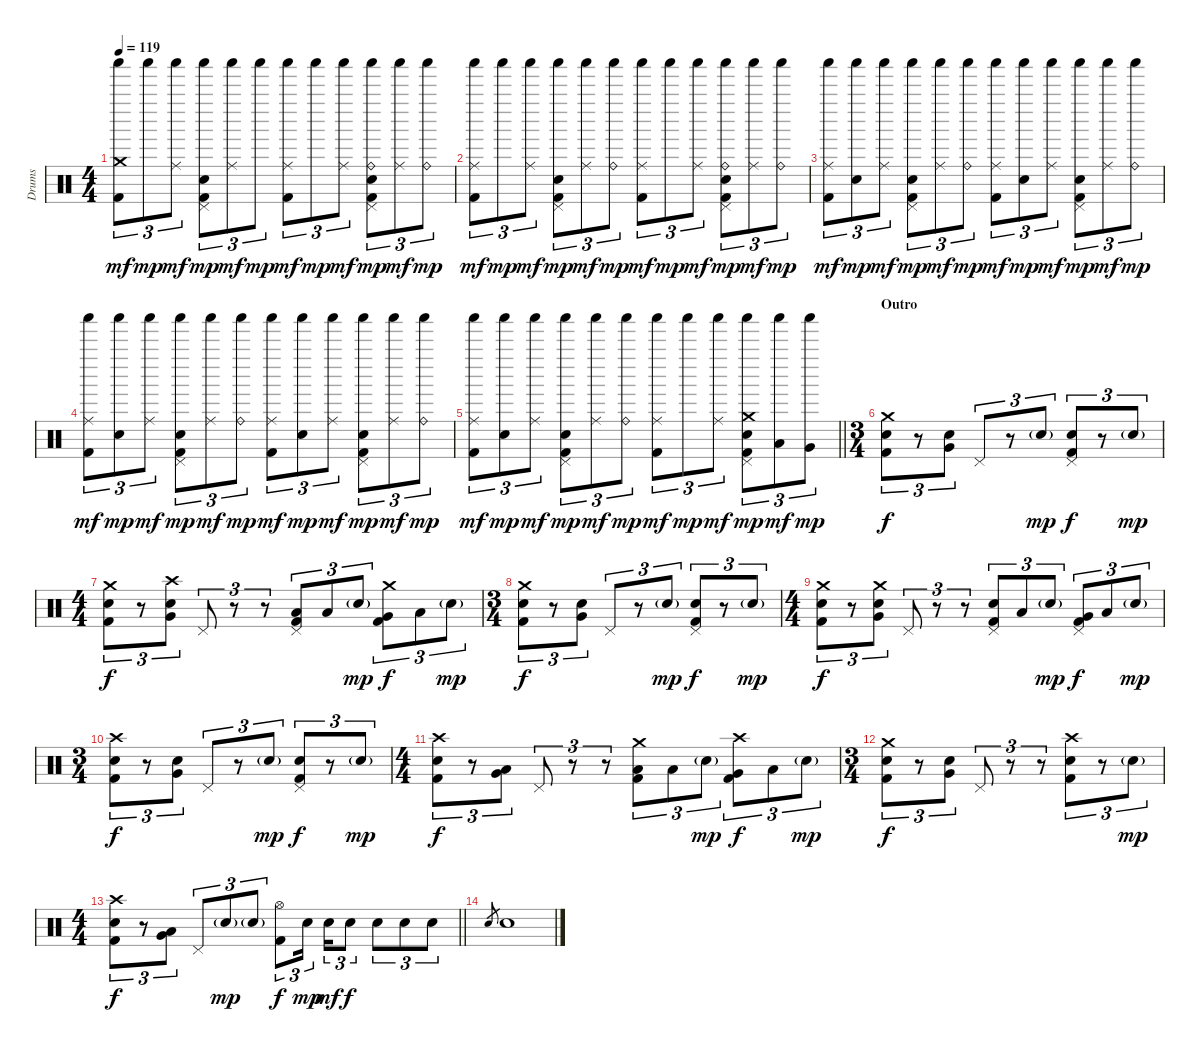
\track ("Drums" "Drums") {instrument percussion}
\staff {score}
\articulation defaults
\ts (4 4)
\tempo 119
\clef neutral
\ks c
("Crash medium (hit)" "Shaker (hit)" "Kick (hit) 2").8{tu (3 2) dy mf} "Shaker (hit)".8{tu (3 2) dy mp} ("Ride (middle)" "Shaker (hit)").8{tu (3 2) dy mf} ("Pedal Hi-Hat (hit)" "Shaker (hit)" "Electric Snare (hit)" "Kick (hit) 2").8{tu (3 2) dy mp} ("Ride (middle)" "Shaker (hit)").8{tu (3 2) dy mf} "Shaker (hit)".8{tu (3 2) dy mp} ("Ride (middle)" "Shaker (hit)" "Kick (hit) 2").8{tu (3 2) dy mf} "Shaker (hit)".8{tu (3 2) dy mp} ("Ride (middle)" "Shaker (hit)").8{tu (3 2) dy mf} ("Ride (bell)" "Shaker (hit)" "Pedal Hi-Hat (hit)" "Electric Snare (hit)" "Kick (hit) 2").8{tu (3 2) dy mp} ("Ride (middle)" "Shaker (hit)").8{tu (3 2) dy mf} ("Ride (bell)" "Shaker (hit)").8{tu (3 2) dy mp} |
("Ride (middle)" "Shaker (hit)" "Kick (hit) 2").8{tu (3 2) dy mf} "Shaker (hit)".8{tu (3 2) dy mp} ("Ride (middle)" "Shaker (hit)").8{tu (3 2) dy mf} ("Shaker (hit)" "Pedal Hi-Hat (hit)" "Electric Snare (hit)" "Kick (hit) 2").8{tu (3 2) dy mp} ("Ride (middle)" "Shaker (hit)").8{tu (3 2) dy mf} ("Ride (bell)" "Shaker (hit)").8{tu (3 2) dy mp} ("Ride (middle)" "Shaker (hit)" "Kick (hit) 2").8{tu (3 2) dy mf} "Shaker (hit)".8{tu (3 2) dy mp} ("Ride (middle)" "Shaker (hit)").8{tu (3 2) dy mf} ("Ride (bell)" "Shaker (hit)" "Pedal Hi-Hat (hit)" "Electric Snare (hit)" "Kick (hit) 2").8{tu (3 2) dy mp} ("Ride (middle)" "Shaker (hit)").8{tu (3 2) dy mf} ("Ride (bell)" "Shaker (hit)").8{tu (3 2) dy mp} |
("Ride (middle)" "Shaker (hit)" "Kick (hit) 2").8{tu (3 2) dy mf} ("Shaker (hit)" "Electric Snare (hit)").8{tu (3 2) dy mp} ("Ride (middle)" "Shaker (hit)").8{tu (3 2) dy mf} ("Shaker (hit)" "Pedal Hi-Hat (hit)" "Electric Snare (hit)" "Kick (hit) 2").8{tu (3 2) dy mp} ("Ride (middle)" "Shaker (hit)").8{tu (3 2) dy mf} ("Ride (bell)" "Shaker (hit)").8{tu (3 2) dy mp} ("Ride (middle)" "Shaker (hit)" "Kick (hit) 2").8{tu (3 2) dy mf} ("Shaker (hit)" "Electric Snare (hit)").8{tu (3 2) dy mp} ("Ride (middle)" "Shaker (hit)").8{tu (3 2) dy mf} ("Shaker (hit)" "Pedal Hi-Hat (hit)" "Electric Snare (hit)" "Kick (hit) 2").8{tu (3 2) dy mp} ("Ride (middle)" "Shaker (hit)").8{tu (3 2) dy mf} ("Ride (bell)" "Shaker (hit)").8{tu (3 2) dy mp} |
("Ride (middle)" "Shaker (hit)" "Kick (hit) 2").8{tu (3 2) dy mf} ("Shaker (hit)" "Electric Snare (hit)").8{tu (3 2) dy mp} ("Ride (middle)" "Shaker (hit)").8{tu (3 2) dy mf} ("Shaker (hit)" "Pedal Hi-Hat (hit)" "Electric Snare (hit)" "Kick (hit) 2").8{tu (3 2) dy mp} ("Ride (middle)" "Shaker (hit)").8{tu (3 2) dy mf} ("Ride (bell)" "Shaker (hit)").8{tu (3 2) dy mp} ("Ride (middle)" "Shaker (hit)" "Kick (hit) 2").8{tu (3 2) dy mf} ("Shaker (hit)" "Electric Snare (hit)").8{tu (3 2) dy mp} ("Ride (middle)" "Shaker (hit)").8{tu (3 2) dy mf} ("Shaker (hit)" "Pedal Hi-Hat (hit)" "Electric Snare (hit)" "Kick (hit) 2").8{tu (3 2) dy mp} ("Ride (middle)" "Shaker (hit)").8{tu (3 2) dy mf} ("Ride (bell)" "Shaker (hit)").8{tu (3 2) dy mp} |
\barLineRight lightlight
("Ride (middle)" "Shaker (hit)" "Kick (hit) 2").8{tu (3 2) dy mf} ("Shaker (hit)" "Electric Snare (hit)").8{tu (3 2) dy mp} ("Ride (middle)" "Shaker (hit)").8{tu (3 2) dy mf} ("Shaker (hit)" "Pedal Hi-Hat (hit)" "Electric Snare (hit)" "Kick (hit) 2").8{tu (3 2) dy mp} ("Ride (middle)" "Shaker (hit)").8{tu (3 2) dy mf} ("Ride (bell)" "Shaker (hit)").8{tu (3 2) dy mp} ("Ride (middle)" "Shaker (hit)" "Kick (hit) 2").8{tu (3 2) dy mf} "Shaker (hit)".8{tu (3 2) dy mp} ("Ride (middle)" "Shaker (hit)").8{tu (3 2) dy mf} ("Crash medium (hit)" "Shaker (hit)" "Pedal Hi-Hat (hit)" "Electric Snare (hit)" "Kick (hit) 2").8{tu (3 2) dy mp} ("Shaker (hit)" "Low Tom (hit)").8{tu (3 2) dy mf} ("Shaker (hit)" "Very Low Tom (hit)").8{tu (3 2) dy mp} |
\ts (3 4)
\section ("" "Outro")
("Crash medium (hit)" "Electric Snare (hit)" "Kick (hit) 2").8{tu (3 2) dy f} r.8{tu (3 2)} ("Very Low Tom (hit)" "Electric Snare (hit)").8{tu (3 2)} "Pedal Hi-Hat (hit)".8{tu (3 2)} r.8{tu (3 2)} "Electric Snare (hit)"{g}.8{tu (3 2) dy mp} ("Pedal Hi-Hat (hit)" "Electric Snare (hit)" "Kick (hit) 2").8{tu (3 2) dy f} r.8{tu (3 2)} "Electric Snare (hit)"{g}.8{tu (3 2) dy mp} |
\ts (4 4)
("Crash medium (hit)" "Electric Snare (hit)" "Kick (hit) 2").8{tu (3 2) dy f} r.8{tu (3 2)} ("Crash high (hit)" "Very Low Tom (hit)" "Electric Snare (hit)").8{tu (3 2)} "Pedal Hi-Hat (hit)".8{tu (3 2)} r.8{tu (3 2)} r.8{tu (3 2)} ("Pedal Hi-Hat (hit)" "Low Tom (hit)" "Kick (hit) 2").8{tu (3 2)} "Low Tom (hit)".8{tu (3 2)} "Electric Snare (hit)"{g}.8{tu (3 2) dy mp} ("Crash medium (hit)" "Very Low Tom (hit)" "Kick (hit) 2").8{tu (3 2) dy f} "Low Tom (hit)".8{tu (3 2)} "Electric Snare (hit)"{g}.8{tu (3 2) dy mp} |
\ts (3 4)
("Crash medium (hit)" "Electric Snare (hit)" "Kick (hit) 2").8{tu (3 2) dy f} r.8{tu (3 2)} ("Very Low Tom (hit)" "Electric Snare (hit)").8{tu (3 2)} "Pedal Hi-Hat (hit)".8{tu (3 2)} r.8{tu (3 2)} "Electric Snare (hit)"{g}.8{tu (3 2) dy mp} ("Pedal Hi-Hat (hit)" "Electric Snare (hit)" "Kick (hit) 2").8{tu (3 2) dy f} r.8{tu (3 2)} "Electric Snare (hit)"{g}.8{tu (3 2) dy mp} |
\ts (4 4)
("Crash medium (hit)" "Electric Snare (hit)" "Kick (hit) 2").8{tu (3 2) dy f} r.8{tu (3 2)} ("Crash medium (hit)" "Very Low Tom (hit)" "Electric Snare (hit)").8{tu (3 2)} "Pedal Hi-Hat (hit)".8{tu (3 2)} r.8{tu (3 2)} r.8{tu (3 2)} ("Pedal Hi-Hat (hit)" "Electric Snare (hit)" "Kick (hit) 2").8{tu (3 2)} "Low Tom (hit)".8{tu (3 2)} "Electric Snare (hit)"{g}.8{tu (3 2) dy mp} ("Pedal Hi-Hat (hit)" "Very Low Tom (hit)" "Kick (hit) 2").8{tu (3 2) dy f} "Low Tom (hit)".8{tu (3 2)} "Electric Snare (hit)"{g}.8{tu (3 2) dy mp} |
\ts (3 4)
("Crash high (hit)" "Electric Snare (hit)" "Kick (hit) 2").8{tu (3 2) dy f} r.8{tu (3 2)} ("Very Low Tom (hit)" "Electric Snare (hit)").8{tu (3 2)} "Pedal Hi-Hat (hit)".8{tu (3 2)} r.8{tu (3 2)} "Electric Snare (hit)"{g}.8{tu (3 2) dy mp} ("Pedal Hi-Hat (hit)" "Electric Snare (hit)" "Kick (hit) 2").8{tu (3 2) dy f} r.8{tu (3 2)} "Electric Snare (hit)"{g}.8{tu (3 2) dy mp} |
\ts (4 4)
("Crash high (hit)" "Electric Snare (hit)" "Kick (hit) 2").8{tu (3 2) dy f} r.8{tu (3 2)} ("Very Low Tom (hit)" "Low Tom (hit)").8{tu (3 2)} "Pedal Hi-Hat (hit)".8{tu (3 2)} r.8{tu (3 2)} r.8{tu (3 2)} ("Crash medium (hit)" "Low Tom (hit)" "Kick (hit) 2").8{tu (3 2)} "Low Tom (hit)".8{tu (3 2)} "Electric Snare (hit)"{g}.8{tu (3 2) dy mp} ("Crash high (hit)" "Very Low Tom (hit)" "Kick (hit) 2").8{tu (3 2) dy f} "Low Tom (hit)".8{tu (3 2)} "Electric Snare (hit)"{g}.8{tu (3 2) dy mp} |
\ts (3 4)
("Crash medium (hit)" "Electric Snare (hit)" "Kick (hit) 2").8{tu (3 2) dy f} r.8{tu (3 2)} ("Very Low Tom (hit)" "Electric Snare (hit)").8{tu (3 2)} "Pedal Hi-Hat (hit)".8{tu (3 2)} r.8{tu (3 2)} r.8{tu (3 2)} ("Crash high (hit)" "Electric Snare (hit)" "Kick (hit) 2").8{tu (3 2)} r.8{tu (3 2)} "Electric Snare (hit)"{g}.8{tu (3 2) dy mp} |
\ts (4 4)
\barLineRight lightlight
("Crash high (hit)" "Electric Snare (hit)" "Kick (hit) 2").8{tu (3 2) dy f} r.8{tu (3 2)} ("Very Low Tom (hit)" "Low Tom (hit)").8{tu (3 2)} "Pedal Hi-Hat (hit)".8{tu (3 2)} "Electric Snare (hit)"{g}.8{tu (3 2) dy mp} "Electric Snare (hit)"{g}.8{tu (3 2)} ("Hi-Hat (open)" "Kick (hit) 2").8{tu (3 2) dy f} "Electric Snare (hit)".16{tu (3 2) dy mp beam splitsecondary} "Electric Snare (hit)".16{tu (3 2) dy mf} "Electric Snare (hit)".8{tu (3 2) dy f} "Electric Snare (hit)".8{tu (3 2)} "Electric Snare (hit)".8{tu (3 2)} "Electric Snare (hit)".8{tu (3 2)} |
"Electric Snare (hit)".8{gr} "Electric Snare (hit)".1
